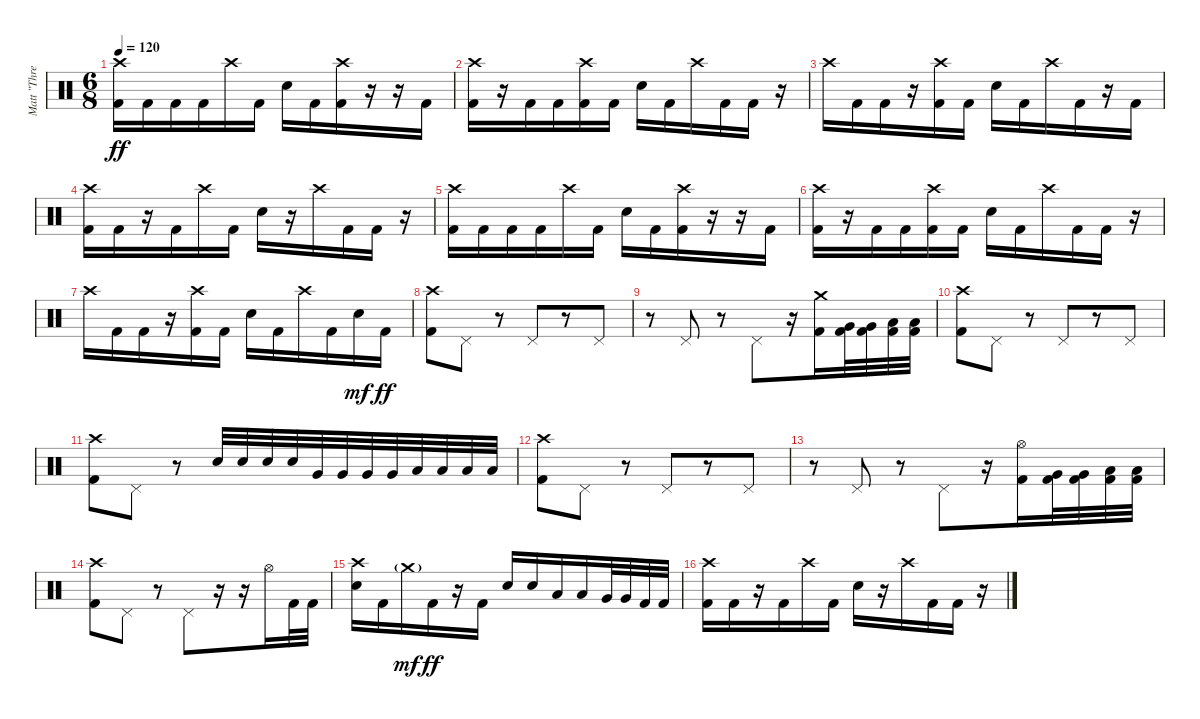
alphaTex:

\track ("Matt \"Three Cymbals/Swing\" Halpern" "Matt \"Thre") {instrument percussion}
\staff {score}
\articulation defaults
\ts (6 8)
\tempo 120
\clef neutral
\ks c
("Crash high (hit)" "Kick (hit) 2").16{dy ff} "Kick (hit) 2".16 "Kick (hit) 2".16 "Kick (hit) 2".16 "Crash high (hit)".16 "Kick (hit) 2".16 "Snare (hit) 2".16 "Kick (hit) 2".16 ("Crash high (hit)" "Kick (hit) 2").16 r.16 r.16 "Kick (hit) 2".16 |
("Crash high (hit)" "Kick (hit) 2").16 r.16 "Kick (hit) 2".16 "Kick (hit) 2".16 ("Crash high (hit)" "Kick (hit) 2").16 "Kick (hit) 2".16 "Snare (hit) 2".16 "Kick (hit) 2".16 "Crash high (hit)".16 "Kick (hit) 2".16 "Kick (hit) 2".16 r.16 |
"Crash high (hit)".16 "Kick (hit) 2".16 "Kick (hit) 2".16 r.16 ("Crash high (hit)" "Kick (hit) 2").16 "Kick (hit) 2".16 "Snare (hit) 2".16 "Kick (hit) 2".16 "Crash high (hit)".16 "Kick (hit) 2".16 r.16 "Kick (hit) 2".16 |
("Crash high (hit)" "Kick (hit) 2").16 "Kick (hit) 2".16 r.16 "Kick (hit) 2".16 "Crash high (hit)".16 "Kick (hit) 2".16 "Snare (hit) 2".16 r.16 "Crash high (hit)".16 "Kick (hit) 2".16 "Kick (hit) 2".16 r.16 |
("Crash high (hit)" "Kick (hit) 2").16 "Kick (hit) 2".16 "Kick (hit) 2".16 "Kick (hit) 2".16 "Crash high (hit)".16 "Kick (hit) 2".16 "Snare (hit) 2".16 "Kick (hit) 2".16 ("Crash high (hit)" "Kick (hit) 2").16 r.16 r.16 "Kick (hit) 2".16 |
("Crash high (hit)" "Kick (hit) 2").16 r.16 "Kick (hit) 2".16 "Kick (hit) 2".16 ("Crash high (hit)" "Kick (hit) 2").16 "Kick (hit) 2".16 "Snare (hit) 2".16 "Kick (hit) 2".16 "Crash high (hit)".16 "Kick (hit) 2".16 "Kick (hit) 2".16 r.16 |
"Crash high (hit)".16 "Kick (hit) 2".16 "Kick (hit) 2".16 r.16 ("Crash high (hit)" "Kick (hit) 2").16 "Kick (hit) 2".16 "Snare (hit) 2".16 "Kick (hit) 2".16 "Crash high (hit)".16 "Kick (hit) 2".16 "Snare (hit) 2".16{dy mf} "Kick (hit) 2".16{dy ff} |
("Crash high (hit)" "Kick (hit) 2").8 "Pedal Hi-Hat (hit)".8 r.8 "Pedal Hi-Hat (hit)".8 r.8 "Pedal Hi-Hat (hit)".8 |
r.8 "Pedal Hi-Hat (hit)".8 r.8 "Pedal Hi-Hat (hit)".8 r.16 ("Crash medium (hit)" "Kick (hit) 2").16 ("Very Low Tom (hit)" "Kick (hit) 2").32 ("Very Low Tom (hit)" "Kick (hit) 2").32 ("Low Floor Tom (hit)" "Kick (hit) 2").32 ("Low Floor Tom (hit)" "Kick (hit) 2").32 |
("Crash high (hit)" "Kick (hit) 2").8 "Pedal Hi-Hat (hit)".8 r.8 "Pedal Hi-Hat (hit)".8 r.8 "Pedal Hi-Hat (hit)".8 |
("Crash high (hit)" "Kick (hit) 2").8 "Pedal Hi-Hat (hit)".8 r.8 "Snare (hit) 2".32 "Snare (hit) 2".32 "Snare (hit) 2".32 "Snare (hit) 2".32 "Very Low Tom (hit)".32 "Very Low Tom (hit)".32 "Very Low Tom (hit)".32 "Very Low Tom (hit)".32 "Low Floor Tom (hit)".32 "Low Floor Tom (hit)".32 "Low Floor Tom (hit)".32 "Low Floor Tom (hit)".32 |
("Crash high (hit)" "Kick (hit) 2").8 "Pedal Hi-Hat (hit)".8 r.8 "Pedal Hi-Hat (hit)".8 r.8 "Pedal Hi-Hat (hit)".8 |
r.8 "Pedal Hi-Hat (hit)".8 r.8 "Pedal Hi-Hat (hit)".8 r.16 ("Hi-Hat (open)" "Kick (hit) 2").16 ("Very Low Tom (hit)" "Kick (hit) 2").32 ("Very Low Tom (hit)" "Kick (hit) 2").32 ("Low Floor Tom (hit)" "Kick (hit) 2").32 ("Low Floor Tom (hit)" "Kick (hit) 2").32 |
("Crash high (hit)" "Kick (hit) 2").8 "Pedal Hi-Hat (hit)".8 r.8 "Pedal Hi-Hat (hit)".8 r.16 r.16 "Hi-Hat (open)".16 "Kick (hit) 2".32 "Kick (hit) 2".32 |
("Crash high (hit)" "Snare (hit) 2").16 "Kick (hit) 2".16 "Crash medium (hit)"{g}.16{dy mf} "Kick (hit) 2".16{dy ff} r.16 "Kick (hit) 2".16 "Snare (hit) 2".16 "Snare (hit) 2".16 "Low Tom (hit)".16 "Low Tom (hit)".16 "Very Low Tom (hit)".32 "Very Low Tom (hit)".32 "Kick (hit) 2".32 "Kick (hit) 2".32 |
("Crash high (hit)" "Kick (hit) 2").16 "Kick (hit) 2".16 r.16 "Kick (hit) 2".16 "Crash high (hit)".16 "Kick (hit) 2".16 "Snare (hit) 2".16 r.16 "Crash high (hit)".16 "Kick (hit) 2".16 "Kick (hit) 2".16 r.16
